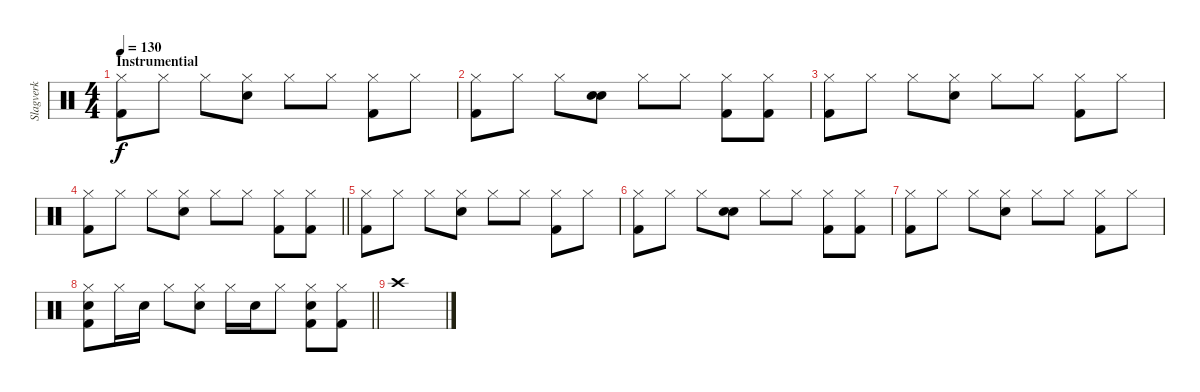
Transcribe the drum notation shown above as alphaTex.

\track ("Slagverk" "Slagverk") {instrument percussion}
\staff {score}
\articulation defaults
\ts (4 4)
\section ("" "Instrumential")
\tempo 130
\clef neutral
\ks c
("Hi-Hat (closed)" "Kick (hit) 2").8{dy f} "Hi-Hat (closed)".8 "Hi-Hat (closed)".8 ("Hi-Hat (closed)" "Snare (hit) 2").8 "Hi-Hat (closed)".8 "Hi-Hat (closed)".8 ("Hi-Hat (closed)" "Kick (hit) 2").8 "Hi-Hat (closed)".8 |
("Hi-Hat (closed)" "Kick (hit) 2").8 "Hi-Hat (closed)".8 "Hi-Hat (closed)".8 ("Snare (hit)" "Snare (hit) 2").8 "Hi-Hat (closed)".8 "Hi-Hat (closed)".8 ("Hi-Hat (closed)" "Kick (hit) 2").8 ("Hi-Hat (closed)" "Kick (hit) 2").8 |
("Hi-Hat (closed)" "Kick (hit) 2").8 "Hi-Hat (closed)".8 "Hi-Hat (closed)".8 ("Hi-Hat (closed)" "Snare (hit) 2").8 "Hi-Hat (closed)".8 "Hi-Hat (closed)".8 ("Hi-Hat (closed)" "Kick (hit) 2").8 "Hi-Hat (closed)".8 |
\barLineRight lightlight
("Hi-Hat (closed)" "Kick (hit) 2").8 "Hi-Hat (closed)".8 "Hi-Hat (closed)".8 ("Hi-Hat (closed)" "Snare (hit) 2").8 "Hi-Hat (closed)".8 "Hi-Hat (closed)".8 ("Hi-Hat (closed)" "Kick (hit) 2").8 ("Hi-Hat (closed)" "Kick (hit) 2").8 |
("Hi-Hat (closed)" "Kick (hit) 2").8 "Hi-Hat (closed)".8 "Hi-Hat (closed)".8 ("Hi-Hat (closed)" "Snare (hit) 2").8 "Hi-Hat (closed)".8 "Hi-Hat (closed)".8 ("Hi-Hat (closed)" "Kick (hit) 2").8 "Hi-Hat (closed)".8 |
("Hi-Hat (closed)" "Kick (hit) 2").8 "Hi-Hat (closed)".8 "Hi-Hat (closed)".8 ("Snare (hit)" "Snare (hit) 2").8 "Hi-Hat (closed)".8 "Hi-Hat (closed)".8 ("Hi-Hat (closed)" "Kick (hit) 2").8 ("Hi-Hat (closed)" "Kick (hit) 2").8 |
("Hi-Hat (closed)" "Kick (hit) 2").8 "Hi-Hat (closed)".8 "Hi-Hat (closed)".8 ("Hi-Hat (closed)" "Snare (hit) 2").8 "Hi-Hat (closed)".8 "Hi-Hat (closed)".8 ("Hi-Hat (closed)" "Kick (hit) 2").8 "Hi-Hat (closed)".8 |
\barLineRight lightlight
("Hi-Hat (closed)" "Snare (hit) 2" "Kick (hit) 2").8 "Hi-Hat (closed)".16 "Snare (hit) 2".16 "Hi-Hat (closed)".8 ("Hi-Hat (closed)" "Snare (hit) 2").8 "Hi-Hat (closed)".16 "Snare (hit) 2".16 "Hi-Hat (closed)".8 ("Hi-Hat (closed)" "Snare (hit) 2" "Kick (hit) 2").8 ("Hi-Hat (closed)" "Kick (hit) 2").8 |
"Crash high (hit)".1
